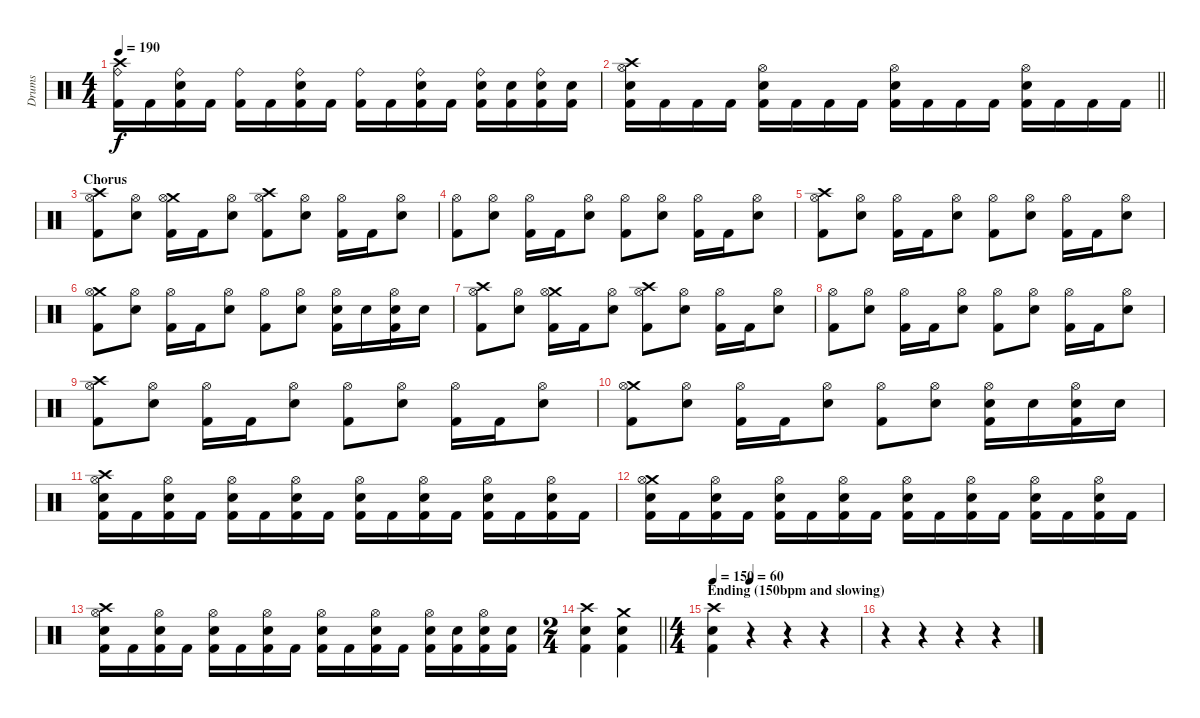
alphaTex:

\track ("Drums" "Drums") {instrument percussion}
\staff {score}
\articulation defaults
\ts (4 4)
\tempo 190
\clef neutral
\ks c
("Crash high (hit)" "Ride (bell)" "Kick (hit) 2").16{dy f} "Kick (hit) 2".16 ("Ride (bell)" "Snare (hit) 2" "Kick (hit) 2").16 "Kick (hit) 2".16 ("Ride (bell)" "Kick (hit) 2").16 "Kick (hit) 2".16 ("Ride (bell)" "Snare (hit) 2" "Kick (hit) 2").16 "Kick (hit) 2".16 ("Ride (bell)" "Kick (hit) 2").16 "Kick (hit) 2".16 ("Ride (bell)" "Snare (hit) 2" "Kick (hit) 2").16 "Kick (hit) 2".16 ("Ride (bell)" "Snare (hit) 2" "Kick (hit) 2").16 ("Snare (hit) 2" "Kick (hit) 2").16 ("Ride (bell)" "Snare (hit) 2" "Kick (hit) 2").16 ("Snare (hit) 2" "Kick (hit) 2").16 |
\barLineRight lightlight
("Crash high (hit)" "Hi-Hat (open)" "Snare (hit) 2" "Kick (hit) 2").16 "Kick (hit) 2".16 "Kick (hit) 2".16 "Kick (hit) 2".16 ("Hi-Hat (open)" "Snare (hit) 2" "Kick (hit) 2").16 "Kick (hit) 2".16 "Kick (hit) 2".16 "Kick (hit) 2".16 ("Hi-Hat (open)" "Snare (hit) 2" "Kick (hit) 2").16 "Kick (hit) 2".16 "Kick (hit) 2".16 "Kick (hit) 2".16 ("Hi-Hat (open)" "Snare (hit) 2" "Kick (hit) 2").16 "Kick (hit) 2".16 "Kick (hit) 2".16 "Kick (hit) 2".16 |
\section ("" "Chorus")
("Crash high (hit)" "Hi-Hat (open)" "Kick (hit) 2").8 ("Hi-Hat (open)" "Snare (hit) 2").8 ("Crash medium (hit)" "Hi-Hat (open)" "Kick (hit) 2").16 "Kick (hit) 2".16 ("Hi-Hat (open)" "Snare (hit) 2").8 ("Crash high (hit)" "Hi-Hat (open)" "Kick (hit) 2").8 ("Hi-Hat (open)" "Snare (hit) 2").8 ("Hi-Hat (open)" "Kick (hit) 2").16 "Kick (hit) 2".16 ("Hi-Hat (open)" "Snare (hit) 2").8 |
("Hi-Hat (open)" "Kick (hit) 2").8 ("Hi-Hat (open)" "Snare (hit) 2").8 ("Hi-Hat (open)" "Kick (hit) 2").16 "Kick (hit) 2".16 ("Hi-Hat (open)" "Snare (hit) 2").8 ("Hi-Hat (open)" "Kick (hit) 2").8 ("Hi-Hat (open)" "Snare (hit) 2").8 ("Hi-Hat (open)" "Kick (hit) 2").16 "Kick (hit) 2".16 ("Hi-Hat (open)" "Snare (hit) 2").8 |
("Crash high (hit)" "Hi-Hat (open)" "Kick (hit) 2").8 ("Hi-Hat (open)" "Snare (hit) 2").8 ("Hi-Hat (open)" "Kick (hit) 2").16 "Kick (hit) 2".16 ("Hi-Hat (open)" "Snare (hit) 2").8 ("Hi-Hat (open)" "Kick (hit) 2").8 ("Hi-Hat (open)" "Snare (hit) 2").8 ("Hi-Hat (open)" "Kick (hit) 2").16 "Kick (hit) 2".16 ("Hi-Hat (open)" "Snare (hit) 2").8 |
("Crash medium (hit)" "Hi-Hat (open)" "Kick (hit) 2").8 ("Hi-Hat (open)" "Snare (hit) 2").8 ("Hi-Hat (open)" "Kick (hit) 2").16 "Kick (hit) 2".16 ("Hi-Hat (open)" "Snare (hit) 2").8 ("Hi-Hat (open)" "Kick (hit) 2").8 ("Hi-Hat (open)" "Snare (hit) 2").8 ("Hi-Hat (open)" "Snare (hit) 2" "Kick (hit) 2").16 "Snare (hit) 2".16 ("Hi-Hat (open)" "Snare (hit) 2" "Kick (hit) 2").16 "Snare (hit) 2".16 |
("Crash high (hit)" "Hi-Hat (open)" "Kick (hit) 2").8 ("Hi-Hat (open)" "Snare (hit) 2").8 ("Crash medium (hit)" "Hi-Hat (open)" "Kick (hit) 2").16 "Kick (hit) 2".16 ("Hi-Hat (open)" "Snare (hit) 2").8 ("Crash high (hit)" "Hi-Hat (open)" "Kick (hit) 2").8 ("Hi-Hat (open)" "Snare (hit) 2").8 ("Hi-Hat (open)" "Kick (hit) 2").16 "Kick (hit) 2".16 ("Hi-Hat (open)" "Snare (hit) 2").8 |
("Hi-Hat (open)" "Kick (hit) 2").8 ("Hi-Hat (open)" "Snare (hit) 2").8 ("Hi-Hat (open)" "Kick (hit) 2").16 "Kick (hit) 2".16 ("Hi-Hat (open)" "Snare (hit) 2").8 ("Hi-Hat (open)" "Kick (hit) 2").8 ("Hi-Hat (open)" "Snare (hit) 2").8 ("Hi-Hat (open)" "Kick (hit) 2").16 "Kick (hit) 2".16 ("Hi-Hat (open)" "Snare (hit) 2").8 |
("Crash high (hit)" "Hi-Hat (open)" "Kick (hit) 2").8 ("Hi-Hat (open)" "Snare (hit) 2").8 ("Hi-Hat (open)" "Kick (hit) 2").16 "Kick (hit) 2".16 ("Hi-Hat (open)" "Snare (hit) 2").8 ("Hi-Hat (open)" "Kick (hit) 2").8 ("Hi-Hat (open)" "Snare (hit) 2").8 ("Hi-Hat (open)" "Kick (hit) 2").16 "Kick (hit) 2".16 ("Hi-Hat (open)" "Snare (hit) 2").8 |
("Crash medium (hit)" "Hi-Hat (open)" "Kick (hit) 2").8 ("Hi-Hat (open)" "Snare (hit) 2").8 ("Hi-Hat (open)" "Kick (hit) 2").16 "Kick (hit) 2".16 ("Hi-Hat (open)" "Snare (hit) 2").8 ("Hi-Hat (open)" "Kick (hit) 2").8 ("Hi-Hat (open)" "Snare (hit) 2").8 ("Hi-Hat (open)" "Snare (hit) 2" "Kick (hit) 2").16 "Snare (hit) 2".16 ("Hi-Hat (open)" "Snare (hit) 2" "Kick (hit) 2").16 "Snare (hit) 2".16 |
("Crash high (hit)" "Hi-Hat (open)" "Snare (hit) 2" "Kick (hit) 2").16 "Kick (hit) 2".16 ("Hi-Hat (open)" "Snare (hit) 2" "Kick (hit) 2").16 "Kick (hit) 2".16 ("Hi-Hat (open)" "Snare (hit) 2" "Kick (hit) 2").16 "Kick (hit) 2".16 ("Hi-Hat (open)" "Snare (hit) 2" "Kick (hit) 2").16 "Kick (hit) 2".16 ("Hi-Hat (open)" "Snare (hit) 2" "Kick (hit) 2").16 "Kick (hit) 2".16 ("Hi-Hat (open)" "Snare (hit) 2" "Kick (hit) 2").16 "Kick (hit) 2".16 ("Hi-Hat (open)" "Snare (hit) 2" "Kick (hit) 2").16 "Kick (hit) 2".16 ("Hi-Hat (open)" "Snare (hit) 2" "Kick (hit) 2").16 "Kick (hit) 2".16 |
("Crash medium (hit)" "Hi-Hat (open)" "Snare (hit) 2" "Kick (hit) 2").16 "Kick (hit) 2".16 ("Hi-Hat (open)" "Snare (hit) 2" "Kick (hit) 2").16 "Kick (hit) 2".16 ("Hi-Hat (open)" "Snare (hit) 2" "Kick (hit) 2").16 "Kick (hit) 2".16 ("Hi-Hat (open)" "Snare (hit) 2" "Kick (hit) 2").16 "Kick (hit) 2".16 ("Hi-Hat (open)" "Snare (hit) 2" "Kick (hit) 2").16 "Kick (hit) 2".16 ("Hi-Hat (open)" "Snare (hit) 2" "Kick (hit) 2").16 "Kick (hit) 2".16 ("Hi-Hat (open)" "Snare (hit) 2" "Kick (hit) 2").16 "Kick (hit) 2".16 ("Hi-Hat (open)" "Snare (hit) 2" "Kick (hit) 2").16 "Kick (hit) 2".16 |
("Crash high (hit)" "Hi-Hat (open)" "Snare (hit) 2" "Kick (hit) 2").16 "Kick (hit) 2".16 ("Hi-Hat (open)" "Snare (hit) 2" "Kick (hit) 2").16 "Kick (hit) 2".16 ("Hi-Hat (open)" "Snare (hit) 2" "Kick (hit) 2").16 "Kick (hit) 2".16 ("Hi-Hat (open)" "Snare (hit) 2" "Kick (hit) 2").16 "Kick (hit) 2".16 ("Hi-Hat (open)" "Snare (hit) 2" "Kick (hit) 2").16 "Kick (hit) 2".16 ("Hi-Hat (open)" "Snare (hit) 2" "Kick (hit) 2").16 "Kick (hit) 2".16 ("Hi-Hat (open)" "Snare (hit) 2" "Kick (hit) 2").16 ("Snare (hit) 2" "Kick (hit) 2").16 ("Hi-Hat (open)" "Snare (hit) 2" "Kick (hit) 2").16 ("Snare (hit) 2" "Kick (hit) 2").16 |
\ts (2 4)
\barLineRight lightlight
("Crash high (hit)" "Snare (hit) 2" "Kick (hit) 2").4 ("Crash medium (hit)" "Snare (hit) 2" "Kick (hit) 2").4 |
\ts (4 4)
\section ("" "Ending (150bpm and slowing)")
\tempo 150
\tempo (60 0.25)
("Crash high (hit)" "Snare (hit) 2" "Kick (hit) 2").4 r.4 r.4 r.4 |
r.4 r.4 r.4 r.4
